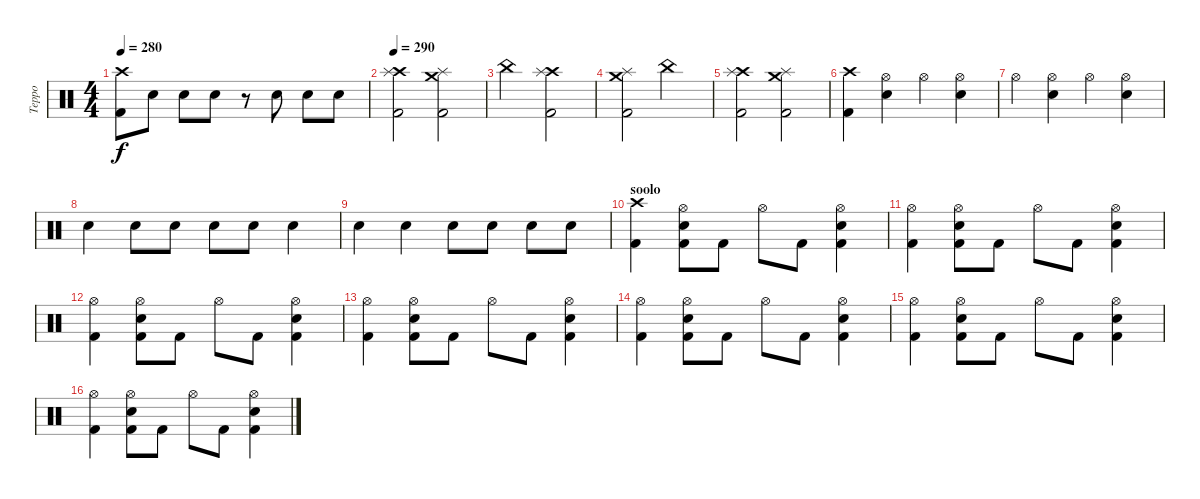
\track ("Teppo" "Teppo") {instrument percussion}
\staff {score}
\articulation defaults
\ts (4 4)
\tempo 280
\clef neutral
\ks c
("Crash high (hit)" "Kick (hit) 2").8{dy f} "Electric Snare (hit)".8 "Electric Snare (hit)".8 "Electric Snare (hit)".8 r.8 "Electric Snare (hit)".8 "Electric Snare (hit)".8 "Electric Snare (hit)".8 |
\tempo 290
("Crash high (hit)" "Splash (hit)" "Kick (hit) 2").2 ("Crash medium (hit)" "Splash (hit)" "Kick (hit) 2").2 |
"China (hit)".2 ("Crash high (hit)" "Splash (hit)" "Kick (hit) 2").2 |
("Crash medium (hit)" "Splash (hit)" "Kick (hit) 2").2 "China (hit)".2 |
("Crash high (hit)" "Splash (hit)" "Kick (hit) 2").2 ("Crash medium (hit)" "Splash (hit)" "Kick (hit) 2").2 |
("Crash high (hit)" "Kick (hit) 2").4 ("Hi-Hat (open)" "Electric Snare (hit)").4 "Hi-Hat (open)".4 ("Hi-Hat (open)" "Electric Snare (hit)").4 |
"Hi-Hat (open)".4 ("Hi-Hat (open)" "Electric Snare (hit)").4 "Hi-Hat (open)".4 ("Hi-Hat (open)" "Electric Snare (hit)").4 |
"Electric Snare (hit)".4 "Electric Snare (hit)".8 "Electric Snare (hit)".8 "Electric Snare (hit)".8 "Electric Snare (hit)".8 "Electric Snare (hit)".4 |
"Electric Snare (hit)".4 "Electric Snare (hit)".4 "Electric Snare (hit)".8 "Electric Snare (hit)".8 "Electric Snare (hit)".8 "Electric Snare (hit)".8 |
\section ("" "soolo")
("Crash high (hit)" "Kick (hit) 2").4 ("Hi-Hat (open)" "Electric Snare (hit)" "Kick (hit) 2").8 "Kick (hit) 2".8 "Hi-Hat (open)".8 "Kick (hit) 2".8 ("Hi-Hat (open)" "Electric Snare (hit)" "Kick (hit) 2").4 |
("Hi-Hat (open)" "Kick (hit) 2").4 ("Hi-Hat (open)" "Electric Snare (hit)" "Kick (hit) 2").8 "Kick (hit) 2".8 "Hi-Hat (open)".8 "Kick (hit) 2".8 ("Hi-Hat (open)" "Electric Snare (hit)" "Kick (hit) 2").4 |
("Hi-Hat (open)" "Kick (hit) 2").4 ("Hi-Hat (open)" "Electric Snare (hit)" "Kick (hit) 2").8 "Kick (hit) 2".8 "Hi-Hat (open)".8 "Kick (hit) 2".8 ("Hi-Hat (open)" "Electric Snare (hit)" "Kick (hit) 2").4 |
("Hi-Hat (open)" "Kick (hit) 2").4 ("Hi-Hat (open)" "Electric Snare (hit)" "Kick (hit) 2").8 "Kick (hit) 2".8 "Hi-Hat (open)".8 "Kick (hit) 2".8 ("Hi-Hat (open)" "Electric Snare (hit)" "Kick (hit) 2").4 |
("Hi-Hat (open)" "Kick (hit) 2").4 ("Hi-Hat (open)" "Electric Snare (hit)" "Kick (hit) 2").8 "Kick (hit) 2".8 "Hi-Hat (open)".8 "Kick (hit) 2".8 ("Hi-Hat (open)" "Electric Snare (hit)" "Kick (hit) 2").4 |
("Hi-Hat (open)" "Kick (hit) 2").4 ("Hi-Hat (open)" "Electric Snare (hit)" "Kick (hit) 2").8 "Kick (hit) 2".8 "Hi-Hat (open)".8 "Kick (hit) 2".8 ("Hi-Hat (open)" "Electric Snare (hit)" "Kick (hit) 2").4 |
("Hi-Hat (open)" "Kick (hit) 2").4 ("Hi-Hat (open)" "Electric Snare (hit)" "Kick (hit) 2").8 "Kick (hit) 2".8 "Hi-Hat (open)".8 "Kick (hit) 2".8 ("Hi-Hat (open)" "Electric Snare (hit)" "Kick (hit) 2").4
